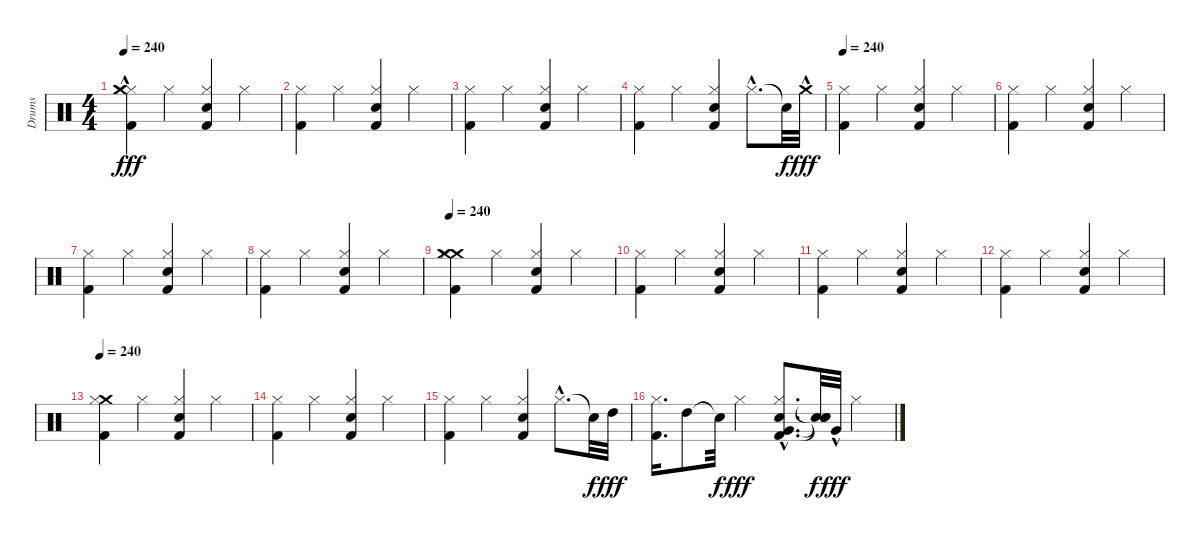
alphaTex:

\track ("Drums" "Drums") {instrument percussion}
\staff {score}
\articulation defaults
\ts (4 4)
\tempo 240
\clef neutral
\ks c
("Kick (hit) 2" "Hi-Hat (closed)" "Crash medium (hit)" "Crash medium (hit)"{hac}).4{dy fff} "Hi-Hat (closed)".4 ("Kick (hit) 2" "Snare (hit) 2" "Hi-Hat (closed)").4 "Hi-Hat (closed)".4 |
("Kick (hit) 2" "Hi-Hat (closed)").4 "Hi-Hat (closed)".4 ("Snare (hit) 2" "Kick (hit) 2" "Hi-Hat (closed)").4 "Hi-Hat (closed)".4 |
("Kick (hit) 2" "Hi-Hat (closed)").4 "Hi-Hat (closed)".4 ("Snare (hit) 2" "Hi-Hat (closed)" "Kick (hit) 2").4 "Hi-Hat (closed)".4 |
("Kick (hit) 2" "Hi-Hat (closed)").4 "Hi-Hat (closed)".4 ("Snare (hit) 2" "Kick (hit) 2" "Hi-Hat (closed)").4 "Hi-Hat (closed)"{hac}.8{d} "Snare (hit)"{t}.32{dy f} "Crash medium (hit)"{hac}.32{dy fff} |
\tempo 240
("Kick (hit) 2" "Hi-Hat (closed)").4 "Hi-Hat (closed)".4 ("Kick (hit) 2" "Snare (hit) 2" "Hi-Hat (closed)").4 "Hi-Hat (closed)".4 |
("Kick (hit) 2" "Hi-Hat (closed)").4 "Hi-Hat (closed)".4 ("Hi-Hat (closed)" "Snare (hit) 2" "Kick (hit) 2").4 "Hi-Hat (closed)".4 |
("Kick (hit) 2" "Hi-Hat (closed)").4 "Hi-Hat (closed)".4 ("Kick (hit) 2" "Hi-Hat (closed)" "Snare (hit) 2").4 "Hi-Hat (closed)".4 |
("Kick (hit) 2" "Hi-Hat (closed)").4 "Hi-Hat (closed)".4 ("Snare (hit) 2" "Kick (hit) 2" "Hi-Hat (closed)").4 "Hi-Hat (closed)".4 |
\tempo 240
("Crash medium (hit)" "Hi-Hat (closed)" "Kick (hit) 2" "Crash medium (hit)").4 "Hi-Hat (closed)".4 ("Hi-Hat (closed)" "Kick (hit) 2" "Snare (hit) 2").4 "Hi-Hat (closed)".4 |
("Hi-Hat (closed)" "Kick (hit) 2").4 "Hi-Hat (closed)".4 ("Hi-Hat (closed)" "Kick (hit) 2" "Snare (hit) 2").4 "Hi-Hat (closed)".4 |
("Hi-Hat (closed)" "Kick (hit) 2").4 "Hi-Hat (closed)".4 ("Hi-Hat (closed)" "Snare (hit) 2" "Kick (hit) 2").4 "Hi-Hat (closed)".4 |
("Hi-Hat (closed)" "Kick (hit) 2").4 "Hi-Hat (closed)".4 ("Hi-Hat (closed)" "Kick (hit) 2" "Snare (hit) 2").4 "Hi-Hat (closed)".4 |
\tempo 240
("Crash medium (hit)" "Hi-Hat (closed)" "Kick (hit) 2").4 "Hi-Hat (closed)".4 ("Hi-Hat (closed)" "Kick (hit) 2" "Snare (hit) 2").4 "Hi-Hat (closed)".4 |
("Hi-Hat (closed)" "Kick (hit) 2").4 "Hi-Hat (closed)".4 ("Hi-Hat (closed)" "Snare (hit) 2" "Kick (hit) 2").4 "Hi-Hat (closed)".4 |
("Hi-Hat (closed)" "Kick (hit) 2").4 "Hi-Hat (closed)".4 ("Hi-Hat (closed)" "Kick (hit) 2" "Snare (hit) 2").4 "Hi-Hat (closed)"{hac}.8{d} "Snare (hit)"{t}.32{dy f} "High Tom (hit)".32{dy fff} |
("Hi-Hat (closed)" "Kick (hit) 2").16{d} "High Tom (hit)".8 "Snare (hit)"{t}.32{dy f} "Hi-Hat (closed)".4{dy fff} ("Very Low Tom (hit)" "Hi-Hat (closed)"{hac} "Kick (hit) 2"{hac} "Snare (hit) 2"{hac}).8{d} ("Snare (hit)"{t} "Snare (hit)"{t} "Snare (hit)"{t}).32{dy f} "Very Low Tom (hit)"{hac}.32{dy fff} "Hi-Hat (closed)".4
